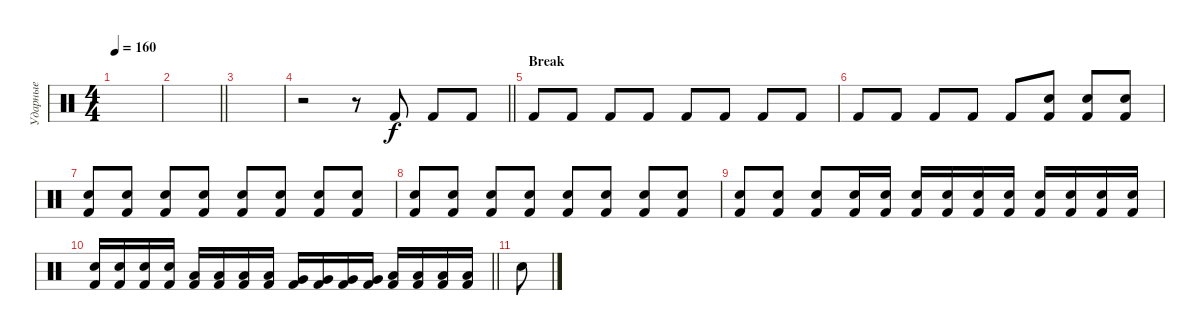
\track ("Ударные" "Ударные") {instrument percussion}
\staff {score}
\articulation defaults
\ts (4 4)
\tempo 160
\clef neutral
\ks c
|
\barLineRight lightlight
|
|
\barLineRight lightlight
r.2 r.8 "Kick (hit) 2".8 "Kick (hit) 2".8 "Kick (hit) 2".8 |
\section ("" "Break")
"Kick (hit) 2".8 "Kick (hit) 2".8 "Kick (hit) 2".8 "Kick (hit) 2".8 "Kick (hit) 2".8 "Kick (hit) 2".8 "Kick (hit) 2".8 "Kick (hit) 2".8 |
"Kick (hit) 2".8 "Kick (hit) 2".8 "Kick (hit) 2".8 "Kick (hit) 2".8 "Kick (hit) 2".8 ("Snare (hit) 2" "Kick (hit) 2").8 ("Snare (hit) 2" "Kick (hit) 2").8 ("Snare (hit) 2" "Kick (hit) 2").8 |
("Snare (hit) 2" "Kick (hit) 2").8 ("Snare (hit) 2" "Kick (hit) 2").8 ("Snare (hit) 2" "Kick (hit) 2").8 ("Snare (hit) 2" "Kick (hit) 2").8 ("Snare (hit) 2" "Kick (hit) 2").8 ("Snare (hit) 2" "Kick (hit) 2").8 ("Snare (hit) 2" "Kick (hit) 2").8 ("Snare (hit) 2" "Kick (hit) 2").8 |
("Snare (hit) 2" "Kick (hit) 2").8 ("Snare (hit) 2" "Kick (hit) 2").8 ("Snare (hit) 2" "Kick (hit) 2").8 ("Snare (hit) 2" "Kick (hit) 2").8 ("Snare (hit) 2" "Kick (hit) 2").8 ("Snare (hit) 2" "Kick (hit) 2").8 ("Snare (hit) 2" "Kick (hit) 2").8 ("Snare (hit) 2" "Kick (hit) 2").8 |
("Snare (hit) 2" "Kick (hit) 2").8 ("Snare (hit) 2" "Kick (hit) 2").8 ("Snare (hit) 2" "Kick (hit) 2").8 ("Snare (hit) 2" "Kick (hit) 2").16 ("Snare (hit) 2" "Kick (hit) 2").16 ("Snare (hit) 2" "Kick (hit) 2").16 ("Snare (hit) 2" "Kick (hit) 2").16 ("Snare (hit) 2" "Kick (hit) 2").16 ("Snare (hit) 2" "Kick (hit) 2").16 ("Snare (hit) 2" "Kick (hit) 2").16 ("Snare (hit) 2" "Kick (hit) 2").16 ("Snare (hit) 2" "Kick (hit) 2").16 ("Snare (hit) 2" "Kick (hit) 2").16 |
\barLineRight lightlight
("Snare (hit) 2" "Kick (hit) 2").16 ("Snare (hit) 2" "Kick (hit) 2").16 ("Snare (hit) 2" "Kick (hit) 2").16 ("Snare (hit) 2" "Kick (hit) 2").16 ("Low Tom (hit)" "Kick (hit) 2").16 ("Low Tom (hit)" "Kick (hit) 2").16 ("Low Tom (hit)" "Kick (hit) 2").16 ("Low Tom (hit)" "Kick (hit) 2").16 ("Very Low Tom (hit)" "Kick (hit) 2").16 ("Very Low Tom (hit)" "Kick (hit) 2").16 ("Very Low Tom (hit)" "Kick (hit) 2").16 ("Very Low Tom (hit)" "Kick (hit) 2").16 ("Low Floor Tom (hit)" "Kick (hit) 2").16 ("Low Floor Tom (hit)" "Kick (hit) 2").16 ("Low Floor Tom (hit)" "Kick (hit) 2").16 ("Low Floor Tom (hit)" "Kick (hit) 2").16 |
"Snare (hit) 2".8
